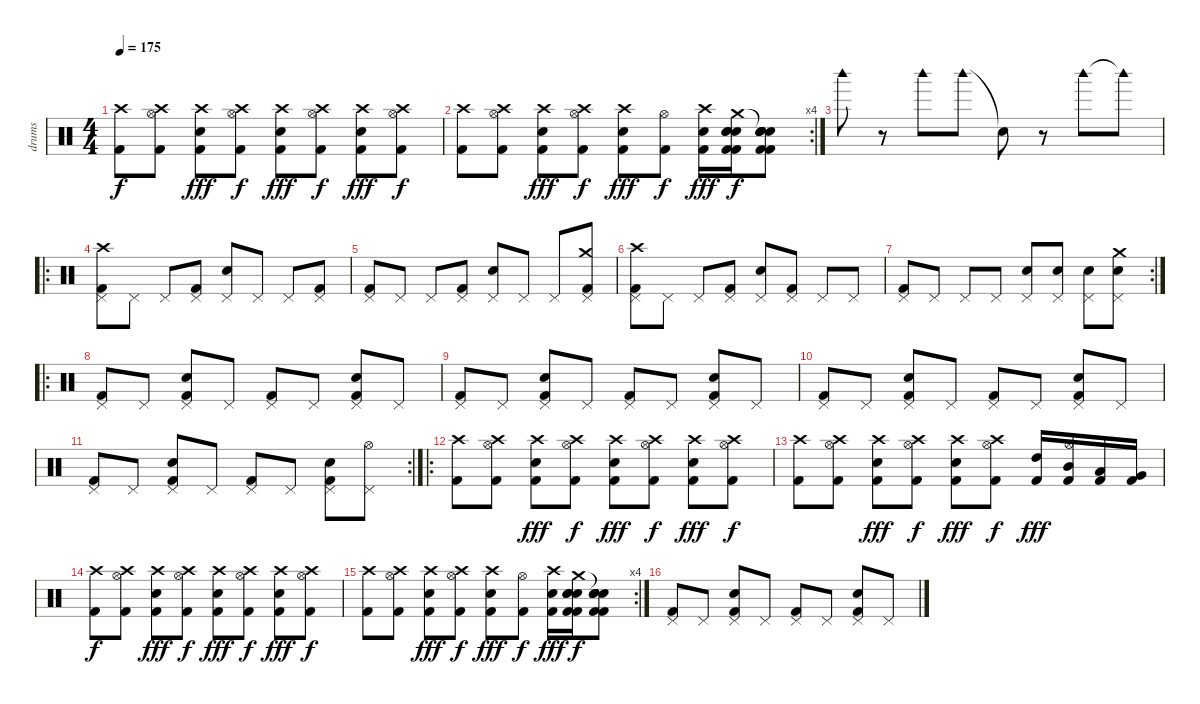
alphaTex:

\track ("drums" "drums") {instrument percussion}
\staff {score}
\articulation defaults
\ts (4 4)
\tempo 175
\clef neutral
\ks c
("Crash high (hit)" "Kick (hit) 2").8{dy f} ("Crash high (hit)" "Hi-Hat (open)" "Kick (hit) 2").8 ("Crash high (hit)" "Kick (hit) 2" "Electric Snare (hit)").8{dy fff} ("Crash high (hit)" "Hi-Hat (open)" "Kick (hit) 2").8{dy f} ("Crash high (hit)" "Kick (hit) 2" "Electric Snare (hit)").8{dy fff} ("Crash high (hit)" "Hi-Hat (open)" "Kick (hit) 2").8{dy f} ("Crash high (hit)" "Kick (hit) 2" "Electric Snare (hit)").8{dy fff} ("Crash high (hit)" "Hi-Hat (open)" "Kick (hit) 2").8{dy f} |
\rc 4
("Crash high (hit)" "Kick (hit) 2").8 ("Crash high (hit)" "Hi-Hat (open)" "Kick (hit) 2").8 ("Crash high (hit)" "Kick (hit) 2" "Electric Snare (hit)").8{dy fff} ("Crash high (hit)" "Hi-Hat (open)" "Kick (hit) 2").8{dy f} ("Crash high (hit)" "Kick (hit) 2" "Electric Snare (hit)").8{dy fff} ("Hi-Hat (open)" "Kick (hit) 2").8{dy f} ("Crash high (hit)" "Kick (hit) 2" "Electric Snare (hit)").16{dy fff} ("Crash medium (hit)" "Electric Snare (hit)" "Kick (hit) 2" "Electric Snare (hit)" "Kick (hit) 2" "Electric Snare (hit)").16{dy f} ("Snare (hit)"{t} "Electric Snare (hit)" "Kick (hit) 2" "Electric Snare (hit)" "Kick (hit) 2" "Electric Snare (hit)").8 |
"Woodblock high (hit)".8 r.8 "Woodblock high (hit)".8 "Woodblock high (hit)".8 "Snare (hit)"{t}.8 r.8 "Woodblock high (hit)".8 "Woodblock high (hit)"{t}.8 |
\ro
("Crash high (hit)" "Kick (hit) 2" "Pedal Hi-Hat (hit)").8 "Pedal Hi-Hat (hit)".8 "Pedal Hi-Hat (hit)".8 ("Kick (hit) 2" "Pedal Hi-Hat (hit)").8 ("Snare (hit) 2" "Pedal Hi-Hat (hit)").8 "Pedal Hi-Hat (hit)".8 "Pedal Hi-Hat (hit)".8 ("Kick (hit) 2" "Pedal Hi-Hat (hit)").8 |
("Kick (hit) 2" "Pedal Hi-Hat (hit)").8 "Pedal Hi-Hat (hit)".8 "Pedal Hi-Hat (hit)".8 ("Kick (hit) 2" "Pedal Hi-Hat (hit)").8 ("Snare (hit) 2" "Pedal Hi-Hat (hit)").8 "Pedal Hi-Hat (hit)".8 "Pedal Hi-Hat (hit)".8 ("Crash medium (hit)" "Kick (hit) 2" "Pedal Hi-Hat (hit)").8 |
("Crash high (hit)" "Kick (hit) 2" "Pedal Hi-Hat (hit)").8 "Pedal Hi-Hat (hit)".8 "Pedal Hi-Hat (hit)".8 ("Kick (hit) 2" "Pedal Hi-Hat (hit)").8 ("Snare (hit) 2" "Pedal Hi-Hat (hit)").8 ("Kick (hit) 2" "Pedal Hi-Hat (hit)").8 "Pedal Hi-Hat (hit)".8 "Pedal Hi-Hat (hit)".8 |
\rc 2
("Kick (hit) 2" "Pedal Hi-Hat (hit)").8 "Pedal Hi-Hat (hit)".8 "Pedal Hi-Hat (hit)".8 "Pedal Hi-Hat (hit)".8 ("Snare (hit) 2" "Pedal Hi-Hat (hit)").8 ("Snare (hit) 2" "Pedal Hi-Hat (hit)").8 ("Snare (hit) 2" "Pedal Hi-Hat (hit)").8 ("Crash medium (hit)" "Snare (hit) 2" "Pedal Hi-Hat (hit)").8 |
\ro
("Kick (hit) 2" "Pedal Hi-Hat (hit)").8 "Pedal Hi-Hat (hit)".8 ("Snare (hit) 2" "Kick (hit) 2" "Pedal Hi-Hat (hit)").8 "Pedal Hi-Hat (hit)".8 ("Kick (hit) 2" "Pedal Hi-Hat (hit)").8 "Pedal Hi-Hat (hit)".8 ("Snare (hit) 2" "Kick (hit) 2" "Pedal Hi-Hat (hit)").8 "Pedal Hi-Hat (hit)".8 |
("Kick (hit) 2" "Pedal Hi-Hat (hit)").8 "Pedal Hi-Hat (hit)".8 ("Snare (hit) 2" "Kick (hit) 2" "Pedal Hi-Hat (hit)").8 "Pedal Hi-Hat (hit)".8 ("Kick (hit) 2" "Pedal Hi-Hat (hit)").8 "Pedal Hi-Hat (hit)".8 ("Snare (hit) 2" "Kick (hit) 2" "Pedal Hi-Hat (hit)").8 "Pedal Hi-Hat (hit)".8 |
("Kick (hit) 2" "Pedal Hi-Hat (hit)").8 "Pedal Hi-Hat (hit)".8 ("Snare (hit) 2" "Kick (hit) 2" "Pedal Hi-Hat (hit)").8 "Pedal Hi-Hat (hit)".8 ("Kick (hit) 2" "Pedal Hi-Hat (hit)").8 "Pedal Hi-Hat (hit)".8 ("Snare (hit) 2" "Kick (hit) 2" "Pedal Hi-Hat (hit)").8 "Pedal Hi-Hat (hit)".8 |
\rc 2
("Kick (hit) 2" "Pedal Hi-Hat (hit)").8 "Pedal Hi-Hat (hit)".8 ("Snare (hit) 2" "Kick (hit) 2" "Pedal Hi-Hat (hit)").8 "Pedal Hi-Hat (hit)".8 ("Kick (hit) 2" "Pedal Hi-Hat (hit)").8 "Pedal Hi-Hat (hit)".8 ("Snare (hit) 2" "Kick (hit) 2" "Pedal Hi-Hat (hit)").8 ("Hi-Hat (open)" "Pedal Hi-Hat (hit)").8 |
\ro
("Crash high (hit)" "Kick (hit) 2").8{volume 13} ("Crash high (hit)" "Hi-Hat (open)" "Kick (hit) 2").8 ("Crash high (hit)" "Kick (hit) 2" "Electric Snare (hit)").8{dy fff} ("Crash high (hit)" "Hi-Hat (open)" "Kick (hit) 2").8{dy f} ("Crash high (hit)" "Kick (hit) 2" "Electric Snare (hit)").8{dy fff} ("Crash high (hit)" "Hi-Hat (open)" "Kick (hit) 2").8{dy f} ("Crash high (hit)" "Kick (hit) 2" "Electric Snare (hit)").8{dy fff} ("Crash high (hit)" "Hi-Hat (open)" "Kick (hit) 2").8{dy f} |
("Crash high (hit)" "Kick (hit) 2").8 ("Crash high (hit)" "Hi-Hat (open)" "Kick (hit) 2").8 ("Crash high (hit)" "Kick (hit) 2" "Electric Snare (hit)").8{dy fff} ("Crash high (hit)" "Hi-Hat (open)" "Kick (hit) 2").8{dy f} ("Crash high (hit)" "Kick (hit) 2" "Electric Snare (hit)").8{dy fff} ("Crash high (hit)" "Hi-Hat (open)" "Kick (hit) 2").8{dy f} ("High Tom (hit)" "Kick (hit) 2").16{dy fff} ("Mid Tom (hit)" "Hi-Hat (open)" "Kick (hit) 2").16 ("Low Tom (hit)" "Kick (hit) 2").16 ("Very Low Tom (hit)" "Kick (hit) 2").16 |
("Crash high (hit)" "Kick (hit) 2").8{dy f} ("Crash high (hit)" "Hi-Hat (open)" "Kick (hit) 2").8 ("Crash high (hit)" "Kick (hit) 2" "Electric Snare (hit)").8{dy fff} ("Crash high (hit)" "Hi-Hat (open)" "Kick (hit) 2").8{dy f} ("Crash high (hit)" "Kick (hit) 2" "Electric Snare (hit)").8{dy fff} ("Crash high (hit)" "Hi-Hat (open)" "Kick (hit) 2").8{dy f} ("Crash high (hit)" "Kick (hit) 2" "Electric Snare (hit)").8{dy fff} ("Crash high (hit)" "Hi-Hat (open)" "Kick (hit) 2").8{dy f} |
\rc 4
("Crash high (hit)" "Kick (hit) 2").8 ("Crash high (hit)" "Hi-Hat (open)" "Kick (hit) 2").8 ("Crash high (hit)" "Kick (hit) 2" "Electric Snare (hit)").8{dy fff} ("Crash high (hit)" "Hi-Hat (open)" "Kick (hit) 2").8{dy f} ("Crash high (hit)" "Kick (hit) 2" "Electric Snare (hit)").8{dy fff} ("Hi-Hat (open)" "Kick (hit) 2").8{dy f} ("Crash high (hit)" "Kick (hit) 2" "Electric Snare (hit)").16{dy fff} ("Crash medium (hit)" "Electric Snare (hit)" "Kick (hit) 2" "Electric Snare (hit)" "Kick (hit) 2" "Electric Snare (hit)").16{dy f} ("Snare (hit)"{t} "Electric Snare (hit)" "Kick (hit) 2" "Electric Snare (hit)" "Kick (hit) 2" "Electric Snare (hit)").8 |
("Kick (hit) 2" "Pedal Hi-Hat (hit)").8 "Pedal Hi-Hat (hit)".8 ("Snare (hit) 2" "Kick (hit) 2" "Pedal Hi-Hat (hit)").8 "Pedal Hi-Hat (hit)".8 ("Kick (hit) 2" "Pedal Hi-Hat (hit)").8 "Pedal Hi-Hat (hit)".8 ("Snare (hit) 2" "Kick (hit) 2" "Pedal Hi-Hat (hit)").8 "Pedal Hi-Hat (hit)".8
